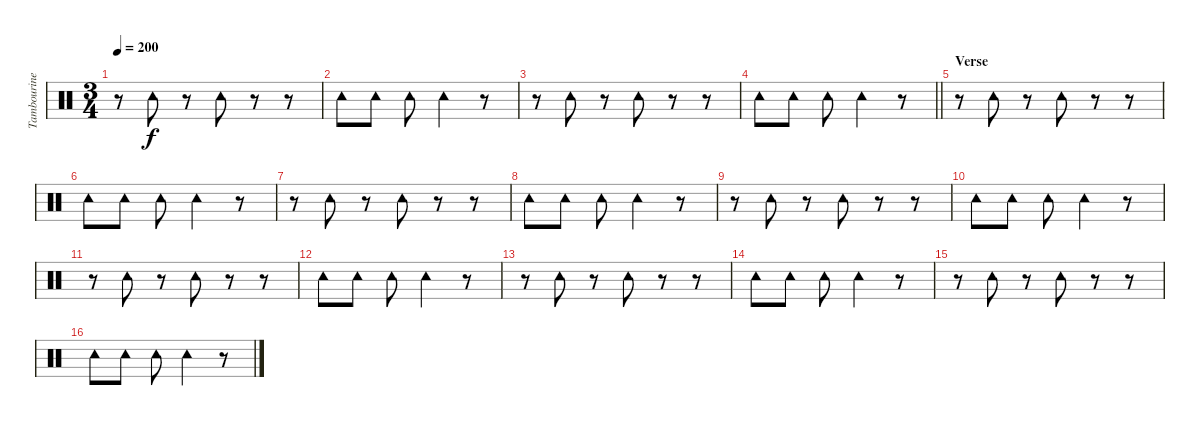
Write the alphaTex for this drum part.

\track ("Tambourine" "Tambourine") {instrument percussion}
\staff {score}
\articulation defaults
\ts (3 4)
\tempo 200
\clef neutral
\ks c
r.8{dy f} "Tambourine (hit)".8 r.8 "Tambourine (hit)".8 r.8 r.8 |
"Tambourine (hit)".8 "Tambourine (hit)".8 "Tambourine (hit)".8 "Tambourine (hit)".4 r.8 |
r.8 "Tambourine (hit)".8 r.8 "Tambourine (hit)".8 r.8 r.8 |
\barLineRight lightlight "Tambourine (hit)".8 "Tambourine (hit)".8 "Tambourine (hit)".8 "Tambourine (hit)".4
r.8 |
\section ("" "Verse")
r.8 "Tambourine (hit)".8 r.8 "Tambourine (hit)".8 r.8 r.8 |
"Tambourine (hit)".8 "Tambourine (hit)".8 "Tambourine (hit)".8 "Tambourine (hit)".4 r.8 |
r.8 "Tambourine (hit)".8 r.8 "Tambourine (hit)".8 r.8 r.8 |
"Tambourine (hit)".8 "Tambourine (hit)".8 "Tambourine (hit)".8 "Tambourine (hit)".4 r.8 |
r.8 "Tambourine (hit)".8 r.8 "Tambourine (hit)".8 r.8 r.8 |
"Tambourine (hit)".8 "Tambourine (hit)".8 "Tambourine (hit)".8 "Tambourine (hit)".4 r.8 |
r.8 "Tambourine (hit)".8 r.8 "Tambourine (hit)".8 r.8 r.8 |
"Tambourine (hit)".8 "Tambourine (hit)".8 "Tambourine (hit)".8 "Tambourine (hit)".4 r.8 |
r.8 "Tambourine (hit)".8 r.8 "Tambourine (hit)".8 r.8 r.8 |
"Tambourine (hit)".8 "Tambourine (hit)".8 "Tambourine (hit)".8 "Tambourine (hit)".4 r.8 |
r.8 "Tambourine (hit)".8 r.8 "Tambourine (hit)".8 r.8 r.8 |
"Tambourine (hit)".8 "Tambourine (hit)".8 "Tambourine (hit)".8 "Tambourine (hit)".4 r.8
